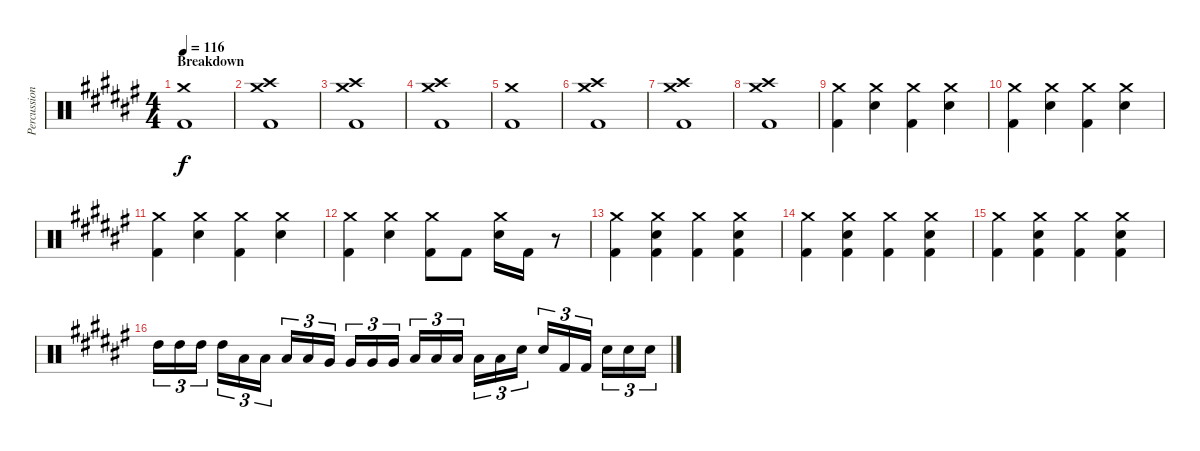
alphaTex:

\track ("Percussion" "Percussion") {instrument percussion}
\staff {score}
\articulation defaults
\ts (4 4)
\section ("" "Breakdown")
\tempo 116
\clef neutral
\ks d#minor
("Crash medium (hit)" "Kick (hit) 2").1{dy f} |
("Crash medium (hit)" "Crash high (hit)" "Kick (hit) 2").1 |
("Crash medium (hit)" "Crash high (hit)" "Kick (hit) 2").1 |
("Crash medium (hit)" "Crash high (hit)" "Kick (hit) 2").1 |
("Crash medium (hit)" "Kick (hit) 2").1 |
("Crash medium (hit)" "Crash high (hit)" "Kick (hit) 2").1 |
("Crash medium (hit)" "Crash high (hit)" "Kick (hit) 2").1 |
("Crash medium (hit)" "Crash high (hit)" "Kick (hit) 2").1 |
("Crash medium (hit)" "Kick (hit) 2").4 ("Crash medium (hit)" "Electric Snare (hit)").4 ("Crash medium (hit)" "Kick (hit) 2").4 ("Crash medium (hit)" "Electric Snare (hit)").4 |
("Crash medium (hit)" "Kick (hit) 2").4 ("Crash medium (hit)" "Electric Snare (hit)").4 ("Crash medium (hit)" "Kick (hit) 2").4 ("Crash medium (hit)" "Electric Snare (hit)").4 |
("Crash medium (hit)" "Kick (hit) 2").4 ("Crash medium (hit)" "Electric Snare (hit)").4 ("Crash medium (hit)" "Kick (hit) 2").4 ("Crash medium (hit)" "Electric Snare (hit)").4 |
("Crash medium (hit)" "Kick (hit) 2").4 ("Crash medium (hit)" "Electric Snare (hit)").4 ("Crash medium (hit)" "Kick (hit) 2").8 "Kick (hit) 2".8 ("Crash medium (hit)" "Electric Snare (hit)").16 "Kick (hit) 2".16 r.8 |
("Crash medium (hit)" "Kick (hit) 2").4 ("Crash medium (hit)" "Electric Snare (hit)" "Kick (hit) 2").4 ("Crash medium (hit)" "Kick (hit) 2").4 ("Crash medium (hit)" "Electric Snare (hit)" "Kick (hit) 2").4 |
("Crash medium (hit)" "Kick (hit) 2").4 ("Crash medium (hit)" "Electric Snare (hit)" "Kick (hit) 2").4 ("Crash medium (hit)" "Kick (hit) 2").4 ("Crash medium (hit)" "Electric Snare (hit)" "Kick (hit) 2").4 |
("Crash medium (hit)" "Kick (hit) 2").4 ("Crash medium (hit)" "Electric Snare (hit)" "Kick (hit) 2").4 ("Crash medium (hit)" "Kick (hit) 2").4 ("Crash medium (hit)" "Electric Snare (hit)" "Kick (hit) 2").4 |
"High Tom (hit)".16{tu (3 2)} "High Tom (hit)".16{tu (3 2)} "High Tom (hit)".16{tu (3 2) beam splitsecondary} "High Tom (hit)".16{tu (3 2)} "Low Tom (hit)".16{tu (3 2)} "Low Tom (hit)".16{tu (3 2)} "Low Tom (hit)".16{tu (3 2)} "Low Tom (hit)".16{tu (3 2)} "Very Low Tom (hit)".16{tu (3 2) beam splitsecondary} "Very Low Tom (hit)".16{tu (3 2)} "Very Low Tom (hit)".16{tu (3 2)} "Very Low Tom (hit)".16{tu (3 2)} "Low Floor Tom (hit)".16{tu (3 2)} "Low Floor Tom (hit)".16{tu (3 2)} "Low Floor Tom (hit)".16{tu (3 2) beam splitsecondary} "Low Floor Tom (hit)".16{tu (3 2)} "Low Floor Tom (hit)".16{tu (3 2)} "Electric Snare (hit)".16{tu (3 2)} "Electric Snare (hit)".16{tu (3 2)} "Kick (hit) 2".16{tu (3 2)} "Kick (hit) 2".16{tu (3 2) beam splitsecondary} "Electric Snare (hit)".16{tu (3 2)} "Electric Snare (hit)".16{tu (3 2)} "Electric Snare (hit)".16{tu (3 2)}
